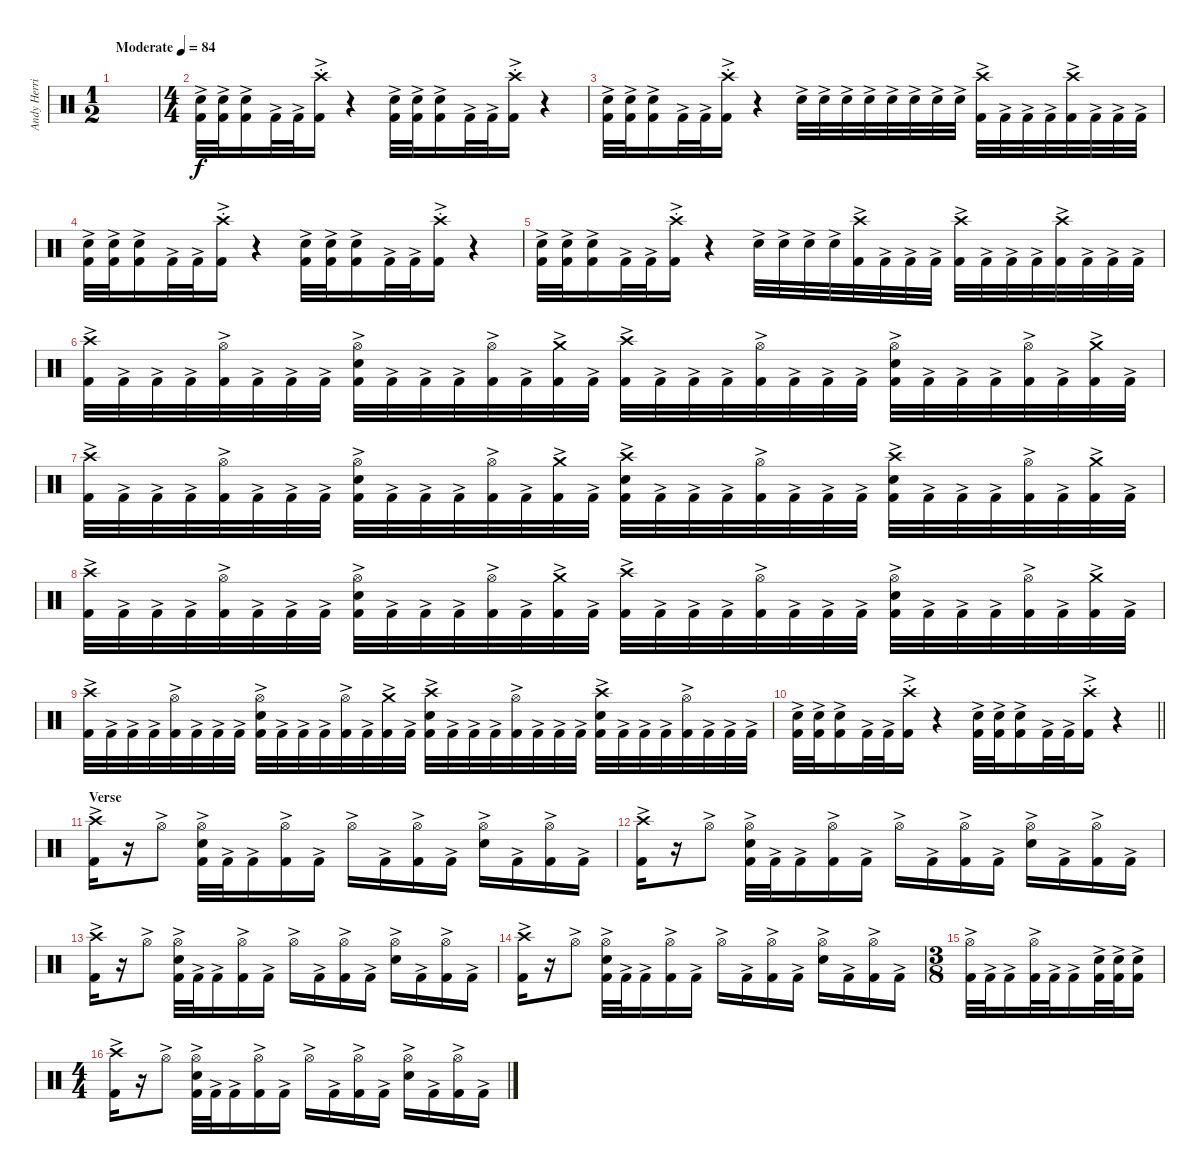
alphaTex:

\track ("Andy Herrick" "Andy Herri") {instrument percussion}
\staff {score}
\articulation defaults
\ts (1 2)
\tempo (84 "Moderate")
\clef neutral
\ks c
|
\ts (4 4)
("Electric Snare (hit)"{ac} "Kick (hit) 2"{ac}).32 ("Electric Snare (hit)"{ac} "Kick (hit) 2"{ac}).32 ("Electric Snare (hit)"{ac} "Kick (hit) 2"{ac}).16 "Kick (hit) 2"{ac}.32 "Kick (hit) 2"{ac}.32 ("Crash high (hit)"{ac st} "Kick (hit) 2"{ac}).16 r.4 ("Electric Snare (hit)"{ac} "Kick (hit) 2"{ac}).32 ("Electric Snare (hit)"{ac} "Kick (hit) 2"{ac}).32 ("Electric Snare (hit)"{ac} "Kick (hit) 2"{ac}).16 "Kick (hit) 2"{ac}.32 "Kick (hit) 2"{ac}.32 ("Crash high (hit)"{ac st} "Kick (hit) 2"{ac}).16 r.4 |
("Electric Snare (hit)"{ac} "Kick (hit) 2"{ac}).32 ("Electric Snare (hit)"{ac} "Kick (hit) 2"{ac}).32 ("Electric Snare (hit)"{ac} "Kick (hit) 2"{ac}).16 "Kick (hit) 2"{ac}.32 "Kick (hit) 2"{ac}.32 ("Crash high (hit)"{ac st} "Kick (hit) 2"{ac}).16 r.4 "Electric Snare (hit)"{ac}.32 "Electric Snare (hit)"{ac}.32 "Electric Snare (hit)"{ac}.32 "Electric Snare (hit)"{ac}.32 "Electric Snare (hit)"{ac}.32 "Electric Snare (hit)"{ac}.32 "Electric Snare (hit)"{ac}.32 "Electric Snare (hit)"{ac}.32 ("Crash high (hit)"{ac} "Kick (hit) 2"{ac}).32 "Kick (hit) 2"{ac}.32 "Kick (hit) 2"{ac}.32 "Kick (hit) 2"{ac}.32 ("Crash high (hit)"{ac} "Kick (hit) 2"{ac}).32 "Kick (hit) 2"{ac}.32 "Kick (hit) 2"{ac}.32 "Kick (hit) 2"{ac}.32 |
("Electric Snare (hit)"{ac} "Kick (hit) 2"{ac}).32 ("Electric Snare (hit)"{ac} "Kick (hit) 2"{ac}).32 ("Electric Snare (hit)"{ac} "Kick (hit) 2"{ac}).16 "Kick (hit) 2"{ac}.32 "Kick (hit) 2"{ac}.32 ("Crash high (hit)"{ac st} "Kick (hit) 2"{ac}).16 r.4 ("Electric Snare (hit)"{ac} "Kick (hit) 2"{ac}).32 ("Electric Snare (hit)"{ac} "Kick (hit) 2"{ac}).32 ("Electric Snare (hit)"{ac} "Kick (hit) 2"{ac}).16 "Kick (hit) 2"{ac}.32 "Kick (hit) 2"{ac}.32 ("Crash high (hit)"{ac st} "Kick (hit) 2"{ac}).16 r.4 |
("Electric Snare (hit)"{ac} "Kick (hit) 2"{ac}).32 ("Electric Snare (hit)"{ac} "Kick (hit) 2"{ac}).32 ("Electric Snare (hit)"{ac} "Kick (hit) 2"{ac}).16 "Kick (hit) 2"{ac}.32 "Kick (hit) 2"{ac}.32 ("Crash high (hit)"{ac st} "Kick (hit) 2"{ac}).16 r.4 "Electric Snare (hit)"{ac}.32 "Electric Snare (hit)"{ac}.32 "Electric Snare (hit)"{ac}.32 "Electric Snare (hit)"{ac}.32 ("Crash high (hit)"{ac} "Kick (hit) 2"{ac}).32 "Kick (hit) 2"{ac}.32 "Kick (hit) 2"{ac}.32 "Kick (hit) 2"{ac}.32 ("Crash high (hit)"{ac} "Kick (hit) 2"{ac}).32 "Kick (hit) 2"{ac}.32 "Kick (hit) 2"{ac}.32 "Kick (hit) 2"{ac}.32 ("Crash high (hit)"{ac} "Kick (hit) 2"{ac}).32 "Kick (hit) 2"{ac}.32 "Kick (hit) 2"{ac}.32 "Kick (hit) 2"{ac}.32 |
("Crash high (hit)"{ac} "Kick (hit) 2"{ac}).32 "Kick (hit) 2"{ac}.32 "Kick (hit) 2"{ac}.32 "Kick (hit) 2"{ac}.32 ("Hi-Hat (open)"{ac} "Kick (hit) 2"{ac}).32 "Kick (hit) 2"{ac}.32 "Kick (hit) 2"{ac}.32 "Kick (hit) 2"{ac}.32 ("Hi-Hat (open)"{ac} "Electric Snare (hit)"{ac} "Kick (hit) 2"{ac}).32 "Kick (hit) 2"{ac}.32 "Kick (hit) 2"{ac}.32 "Kick (hit) 2"{ac}.32 ("Hi-Hat (open)"{ac} "Kick (hit) 2"{ac}).32 "Kick (hit) 2"{ac}.32 ("Crash medium (hit)"{ac} "Kick (hit) 2"{ac}).32 "Kick (hit) 2"{ac}.32 ("Crash high (hit)"{ac} "Kick (hit) 2"{ac}).32 "Kick (hit) 2"{ac}.32 "Kick (hit) 2"{ac}.32 "Kick (hit) 2"{ac}.32 ("Hi-Hat (open)"{ac} "Kick (hit) 2"{ac}).32 "Kick (hit) 2"{ac}.32 "Kick (hit) 2"{ac}.32 "Kick (hit) 2"{ac}.32 ("Hi-Hat (open)"{ac} "Electric Snare (hit)"{ac} "Kick (hit) 2"{ac}).32 "Kick (hit) 2"{ac}.32 "Kick (hit) 2"{ac}.32 "Kick (hit) 2"{ac}.32 ("Hi-Hat (open)"{ac} "Kick (hit) 2"{ac}).32 "Kick (hit) 2"{ac}.32 ("Crash medium (hit)"{ac} "Kick (hit) 2"{ac}).32 "Kick (hit) 2"{ac}.32 |
("Crash high (hit)"{ac} "Kick (hit) 2"{ac}).32 "Kick (hit) 2"{ac}.32 "Kick (hit) 2"{ac}.32 "Kick (hit) 2"{ac}.32 ("Hi-Hat (open)"{ac} "Kick (hit) 2"{ac}).32 "Kick (hit) 2"{ac}.32 "Kick (hit) 2"{ac}.32 "Kick (hit) 2"{ac}.32 ("Hi-Hat (open)"{ac} "Electric Snare (hit)"{ac} "Kick (hit) 2"{ac}).32 "Kick (hit) 2"{ac}.32 "Kick (hit) 2"{ac}.32 "Kick (hit) 2"{ac}.32 ("Hi-Hat (open)"{ac} "Kick (hit) 2"{ac}).32 "Kick (hit) 2"{ac}.32 ("Crash medium (hit)"{ac} "Kick (hit) 2"{ac}).32 "Kick (hit) 2"{ac}.32 ("Crash high (hit)"{ac} "Electric Snare (hit)"{ac} "Kick (hit) 2"{ac}).32 "Kick (hit) 2"{ac}.32 "Kick (hit) 2"{ac}.32 "Kick (hit) 2"{ac}.32 ("Hi-Hat (open)"{ac} "Kick (hit) 2"{ac}).32 "Kick (hit) 2"{ac}.32 "Kick (hit) 2"{ac}.32 "Kick (hit) 2"{ac}.32 ("Crash high (hit)"{ac} "Electric Snare (hit)"{ac} "Kick (hit) 2"{ac}).32 "Kick (hit) 2"{ac}.32 "Kick (hit) 2"{ac}.32 "Kick (hit) 2"{ac}.32 ("Hi-Hat (open)"{ac} "Kick (hit) 2"{ac}).32 "Kick (hit) 2"{ac}.32 ("Crash medium (hit)"{ac} "Kick (hit) 2"{ac}).32 "Kick (hit) 2"{ac}.32 |
("Crash high (hit)"{ac} "Kick (hit) 2"{ac}).32 "Kick (hit) 2"{ac}.32 "Kick (hit) 2"{ac}.32 "Kick (hit) 2"{ac}.32 ("Hi-Hat (open)"{ac} "Kick (hit) 2"{ac}).32 "Kick (hit) 2"{ac}.32 "Kick (hit) 2"{ac}.32 "Kick (hit) 2"{ac}.32 ("Hi-Hat (open)"{ac} "Electric Snare (hit)"{ac} "Kick (hit) 2"{ac}).32 "Kick (hit) 2"{ac}.32 "Kick (hit) 2"{ac}.32 "Kick (hit) 2"{ac}.32 ("Hi-Hat (open)"{ac} "Kick (hit) 2"{ac}).32 "Kick (hit) 2"{ac}.32 ("Crash medium (hit)"{ac} "Kick (hit) 2"{ac}).32 "Kick (hit) 2"{ac}.32 ("Crash high (hit)"{ac} "Kick (hit) 2"{ac}).32 "Kick (hit) 2"{ac}.32 "Kick (hit) 2"{ac}.32 "Kick (hit) 2"{ac}.32 ("Hi-Hat (open)"{ac} "Kick (hit) 2"{ac}).32 "Kick (hit) 2"{ac}.32 "Kick (hit) 2"{ac}.32 "Kick (hit) 2"{ac}.32 ("Hi-Hat (open)"{ac} "Electric Snare (hit)"{ac} "Kick (hit) 2"{ac}).32 "Kick (hit) 2"{ac}.32 "Kick (hit) 2"{ac}.32 "Kick (hit) 2"{ac}.32 ("Hi-Hat (open)"{ac} "Kick (hit) 2"{ac}).32 "Kick (hit) 2"{ac}.32 ("Crash medium (hit)"{ac} "Kick (hit) 2"{ac}).32 "Kick (hit) 2"{ac}.32 |
("Crash high (hit)"{ac} "Kick (hit) 2"{ac}).32 "Kick (hit) 2"{ac}.32 "Kick (hit) 2"{ac}.32 "Kick (hit) 2"{ac}.32 ("Hi-Hat (open)"{ac} "Kick (hit) 2"{ac}).32 "Kick (hit) 2"{ac}.32 "Kick (hit) 2"{ac}.32 "Kick (hit) 2"{ac}.32 ("Hi-Hat (open)"{ac} "Electric Snare (hit)"{ac} "Kick (hit) 2"{ac}).32 "Kick (hit) 2"{ac}.32 "Kick (hit) 2"{ac}.32 "Kick (hit) 2"{ac}.32 ("Hi-Hat (open)"{ac} "Kick (hit) 2"{ac}).32 "Kick (hit) 2"{ac}.32 ("Crash medium (hit)"{ac} "Kick (hit) 2"{ac}).32 "Kick (hit) 2"{ac}.32 ("Crash high (hit)"{ac} "Electric Snare (hit)"{ac} "Kick (hit) 2"{ac}).32 "Kick (hit) 2"{ac}.32 "Kick (hit) 2"{ac}.32 "Kick (hit) 2"{ac}.32 ("Hi-Hat (open)"{ac} "Kick (hit) 2"{ac}).32 "Kick (hit) 2"{ac}.32 "Kick (hit) 2"{ac}.32 "Kick (hit) 2"{ac}.32 ("Crash high (hit)"{ac} "Electric Snare (hit)"{ac} "Kick (hit) 2"{ac}).32 "Kick (hit) 2"{ac}.32 "Kick (hit) 2"{ac}.32 "Kick (hit) 2"{ac}.32 ("Hi-Hat (open)"{ac} "Kick (hit) 2"{ac}).32 "Kick (hit) 2"{ac}.32 "Kick (hit) 2"{ac}.32 "Kick (hit) 2"{ac}.32 |
\barLineRight lightlight
("Electric Snare (hit)"{ac} "Kick (hit) 2"{ac}).32 ("Electric Snare (hit)"{ac} "Kick (hit) 2"{ac}).32 ("Electric Snare (hit)"{ac} "Kick (hit) 2"{ac}).16 "Kick (hit) 2"{ac}.32 "Kick (hit) 2"{ac}.32 ("Crash high (hit)"{ac st} "Kick (hit) 2"{ac}).16 r.4 ("Electric Snare (hit)"{ac} "Kick (hit) 2"{ac}).32 ("Electric Snare (hit)"{ac} "Kick (hit) 2"{ac}).32 ("Electric Snare (hit)"{ac} "Kick (hit) 2"{ac}).16 "Kick (hit) 2"{ac}.32 "Kick (hit) 2"{ac}.32 ("Crash high (hit)"{ac st} "Kick (hit) 2"{ac}).16 r.4 |
\section ("" "Verse")
("Crash high (hit)"{ac} "Kick (hit) 2"{ac}).16 r.16 "Hi-Hat (open)"{ac}.8 ("Hi-Hat (open)"{ac} "Electric Snare (hit)"{ac} "Kick (hit) 2"{ac}).32 "Kick (hit) 2"{ac}.32 "Kick (hit) 2"{ac}.16 ("Hi-Hat (open)"{ac} "Kick (hit) 2"{ac}).16 "Kick (hit) 2"{ac}.16 "Hi-Hat (open)"{ac}.16 "Kick (hit) 2"{ac}.16 ("Hi-Hat (open)"{ac} "Kick (hit) 2"{ac}).16 "Kick (hit) 2"{ac}.16 ("Hi-Hat (open)"{ac} "Electric Snare (hit)"{ac}).16 "Kick (hit) 2"{ac}.16 ("Hi-Hat (open)"{ac} "Kick (hit) 2"{ac}).16 "Kick (hit) 2"{ac}.16 |
("Crash high (hit)"{ac} "Kick (hit) 2"{ac}).16 r.16 "Hi-Hat (open)"{ac}.8 ("Hi-Hat (open)"{ac} "Electric Snare (hit)"{ac} "Kick (hit) 2"{ac}).32 "Kick (hit) 2"{ac}.32 "Kick (hit) 2"{ac}.16 ("Hi-Hat (open)"{ac} "Kick (hit) 2"{ac}).16 "Kick (hit) 2"{ac}.16 "Hi-Hat (open)"{ac}.16 "Kick (hit) 2"{ac}.16 ("Hi-Hat (open)"{ac} "Kick (hit) 2"{ac}).16 "Kick (hit) 2"{ac}.16 ("Hi-Hat (open)"{ac} "Electric Snare (hit)"{ac}).16 "Kick (hit) 2"{ac}.16 ("Hi-Hat (open)"{ac} "Kick (hit) 2"{ac}).16 "Kick (hit) 2"{ac}.16 |
("Crash high (hit)"{ac} "Kick (hit) 2"{ac}).16 r.16 "Hi-Hat (open)"{ac}.8 ("Hi-Hat (open)"{ac} "Electric Snare (hit)"{ac} "Kick (hit) 2"{ac}).32 "Kick (hit) 2"{ac}.32 "Kick (hit) 2"{ac}.16 ("Hi-Hat (open)"{ac} "Kick (hit) 2"{ac}).16 "Kick (hit) 2"{ac}.16 "Hi-Hat (open)"{ac}.16 "Kick (hit) 2"{ac}.16 ("Hi-Hat (open)"{ac} "Kick (hit) 2"{ac}).16 "Kick (hit) 2"{ac}.16 ("Hi-Hat (open)"{ac} "Electric Snare (hit)"{ac}).16 "Kick (hit) 2"{ac}.16 ("Hi-Hat (open)"{ac} "Kick (hit) 2"{ac}).16 "Kick (hit) 2"{ac}.16 |
("Crash high (hit)"{ac} "Kick (hit) 2"{ac}).16 r.16 "Hi-Hat (open)"{ac}.8 ("Hi-Hat (open)"{ac} "Electric Snare (hit)"{ac} "Kick (hit) 2"{ac}).32 "Kick (hit) 2"{ac}.32 "Kick (hit) 2"{ac}.16 ("Hi-Hat (open)"{ac} "Kick (hit) 2"{ac}).16 "Kick (hit) 2"{ac}.16 "Hi-Hat (open)"{ac}.16 "Kick (hit) 2"{ac}.16 ("Hi-Hat (open)"{ac} "Kick (hit) 2"{ac}).16 "Kick (hit) 2"{ac}.16 ("Hi-Hat (open)"{ac} "Electric Snare (hit)"{ac}).16 "Kick (hit) 2"{ac}.16 ("Hi-Hat (open)"{ac} "Kick (hit) 2"{ac}).16 "Kick (hit) 2"{ac}.16 |
\ts (3 8)
("Hi-Hat (open)"{ac} "Kick (hit) 2"{ac}).32 "Kick (hit) 2"{ac}.32 "Kick (hit) 2"{ac}.16 ("Hi-Hat (open)"{ac} "Kick (hit) 2"{ac}).32 "Kick (hit) 2"{ac}.32 "Kick (hit) 2"{ac}.16 ("Electric Snare (hit)"{ac} "Kick (hit) 2"{ac}).32 ("Electric Snare (hit)"{ac} "Kick (hit) 2"{ac}).32 ("Electric Snare (hit)"{ac} "Kick (hit) 2"{ac}).16 |
\ts (4 4)
("Crash high (hit)"{ac} "Kick (hit) 2"{ac}).16 r.16 "Hi-Hat (open)"{ac}.8 ("Hi-Hat (open)"{ac} "Electric Snare (hit)"{ac} "Kick (hit) 2"{ac}).32 "Kick (hit) 2"{ac}.32 "Kick (hit) 2"{ac}.16 ("Hi-Hat (open)"{ac} "Kick (hit) 2"{ac}).16 "Kick (hit) 2"{ac}.16 "Hi-Hat (open)"{ac}.16 "Kick (hit) 2"{ac}.16 ("Hi-Hat (open)"{ac} "Kick (hit) 2"{ac}).16 "Kick (hit) 2"{ac}.16 ("Hi-Hat (open)"{ac} "Electric Snare (hit)"{ac}).16 "Kick (hit) 2"{ac}.16 ("Hi-Hat (open)"{ac} "Kick (hit) 2"{ac}).16 "Kick (hit) 2"{ac}.16
